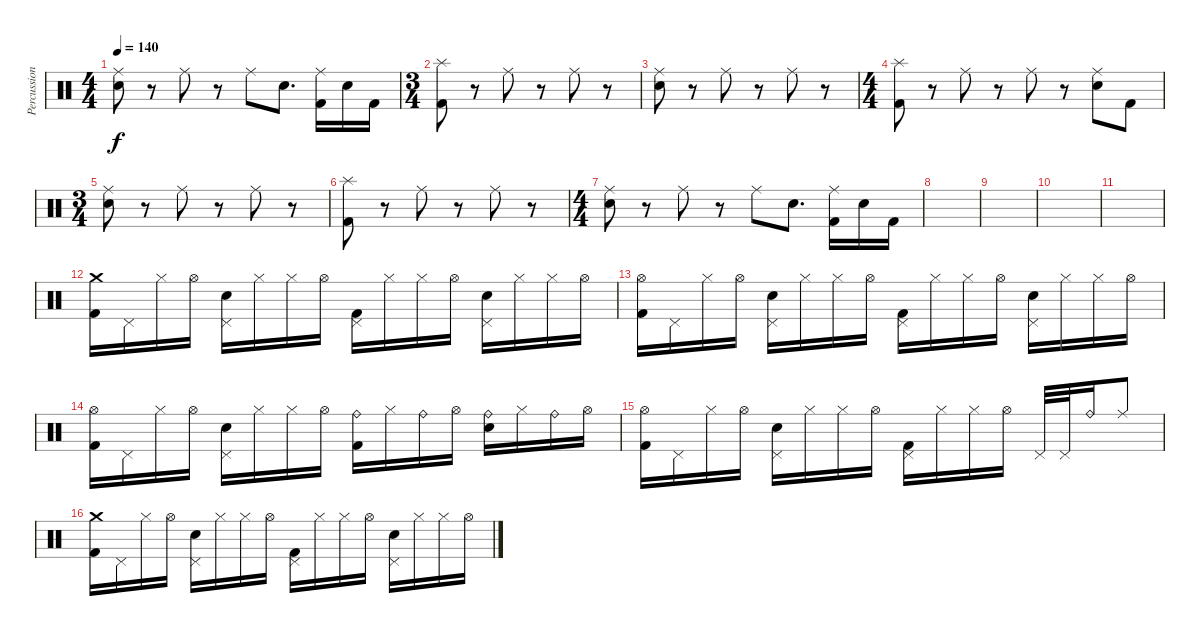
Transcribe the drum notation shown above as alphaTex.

\track ("Percussion" "Percussion") {instrument percussion}
\staff {score}
\articulation defaults
\ts (4 4)
\tempo 140
\clef neutral
\ks c
("Ride (middle)" "Electric Snare (hit)").8{dy f} r.8 "Ride (middle)".8 r.8 "Ride (middle)".8 "Electric Snare (hit)".8{d} ("Ride (middle)" "Kick (hit) 2").16 "Electric Snare (hit)".16 "Kick (hit) 2".16 |
\ts (3 4)
("Splash (hit)" "Kick (hit) 2").8 r.8 "Ride (middle)".8 r.8 "Ride (middle)".8 r.8 |
("Ride (middle)" "Electric Snare (hit)").8 r.8 "Ride (middle)".8 r.8 "Ride (middle)".8 r.8 |
\ts (4 4)
("Splash (hit)" "Kick (hit) 2").8 r.8 "Ride (middle)".8 r.8 "Ride (middle)".8 r.8 ("Ride (middle)" "Electric Snare (hit)").8 "Kick (hit) 2".8 |
\ts (3 4)
("Ride (middle)" "Electric Snare (hit)").8 r.8 "Ride (middle)".8 r.8 "Ride (middle)".8 r.8 |
("Splash (hit)" "Kick (hit) 2").8 r.8 "Ride (middle)".8 r.8 "Ride (middle)".8 r.8 |
\ts (4 4)
("Ride (middle)" "Electric Snare (hit)").8 r.8 "Ride (middle)".8 r.8 "Ride (middle)".8 "Electric Snare (hit)".8{d} ("Ride (middle)" "Kick (hit) 2").16 "Electric Snare (hit)".16 "Kick (hit) 2".16 |
|
|
|
|
("Crash medium (hit)" "Kick (hit) 2").16 "Pedal Hi-Hat (hit)".16 "Hi-Hat (closed)".16 "Hi-Hat (open)".16 ("Pedal Hi-Hat (hit)" "Electric Snare (hit)").16 "Hi-Hat (closed)".16 "Hi-Hat (closed)".16 "Hi-Hat (open)".16 ("Pedal Hi-Hat (hit)" "Kick (hit) 2").16 "Hi-Hat (closed)".16 "Hi-Hat (closed)".16 "Hi-Hat (open)".16 ("Pedal Hi-Hat (hit)" "Electric Snare (hit)").16 "Hi-Hat (closed)".16 "Hi-Hat (closed)".16 "Hi-Hat (open)".16 |
("Hi-Hat (open)" "Kick (hit) 2").16 "Pedal Hi-Hat (hit)".16 "Hi-Hat (closed)".16 "Hi-Hat (open)".16 ("Pedal Hi-Hat (hit)" "Electric Snare (hit)").16 "Hi-Hat (closed)".16 "Hi-Hat (closed)".16 "Hi-Hat (open)".16 ("Pedal Hi-Hat (hit)" "Kick (hit) 2").16 "Hi-Hat (closed)".16 "Hi-Hat (closed)".16 "Hi-Hat (open)".16 ("Pedal Hi-Hat (hit)" "Electric Snare (hit)").16 "Hi-Hat (closed)".16 "Hi-Hat (closed)".16 "Hi-Hat (open)".16 |
("Hi-Hat (open)" "Kick (hit) 2").16 "Pedal Hi-Hat (hit)".16 "Hi-Hat (closed)".16 "Hi-Hat (open)".16 ("Pedal Hi-Hat (hit)" "Electric Snare (hit)").16 "Hi-Hat (closed)".16 "Hi-Hat (closed)".16 "Hi-Hat (open)".16 ("Ride (bell)" "Kick (hit) 2").16 "Hi-Hat (closed)".16 "Ride (bell)".16 "Hi-Hat (open)".16 ("Ride (bell)" "Electric Snare (hit)").16 "Hi-Hat (closed)".16 "Ride (bell)".16 "Hi-Hat (open)".16 |
("Hi-Hat (open)" "Kick (hit) 2").16 "Pedal Hi-Hat (hit)".16 "Hi-Hat (closed)".16 "Hi-Hat (open)".16 ("Pedal Hi-Hat (hit)" "Electric Snare (hit)").16 "Hi-Hat (closed)".16 "Hi-Hat (closed)".16 "Hi-Hat (open)".16 ("Pedal Hi-Hat (hit)" "Kick (hit) 2").16 "Hi-Hat (closed)".16 "Hi-Hat (closed)".16 "Hi-Hat (open)".16 "Pedal Hi-Hat (hit)".32 "Pedal Hi-Hat (hit)".32 "Ride (bell)".16 "Ride (middle)".8 |
("Crash medium (hit)" "Kick (hit) 2").16 "Pedal Hi-Hat (hit)".16 "Hi-Hat (closed)".16 "Hi-Hat (open)".16 ("Pedal Hi-Hat (hit)" "Electric Snare (hit)").16 "Hi-Hat (closed)".16 "Hi-Hat (closed)".16 "Hi-Hat (open)".16 ("Pedal Hi-Hat (hit)" "Kick (hit) 2").16 "Hi-Hat (closed)".16 "Hi-Hat (closed)".16 "Hi-Hat (open)".16 ("Pedal Hi-Hat (hit)" "Electric Snare (hit)").16 "Hi-Hat (closed)".16 "Hi-Hat (closed)".16 "Hi-Hat (open)".16
